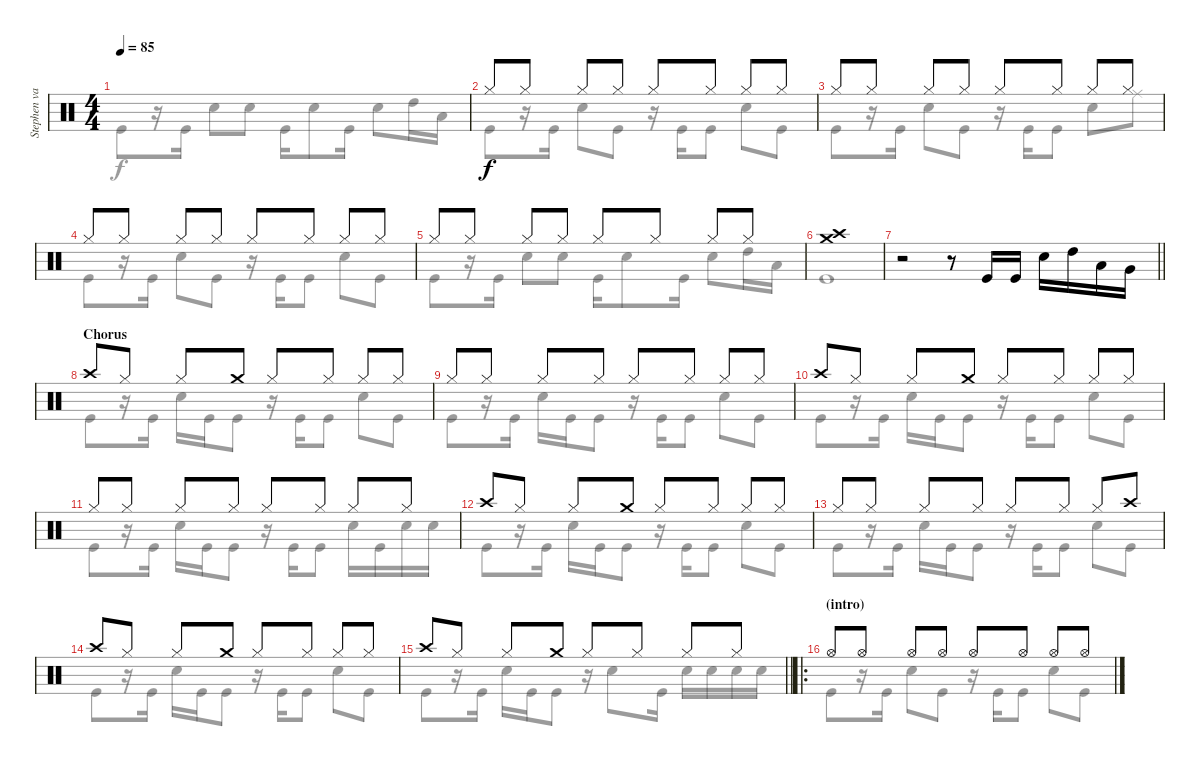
\track ("Stephen van Haestregt - Drums" "Stephen va") {instrument percussion}
\staff {score}
\articulation defaults
\voice
\ts (4 4)
\tempo 85
\clef neutral
\ks c
|
"Hi-Hat (closed)".8 "Hi-Hat (closed)".8 "Hi-Hat (closed)".8 "Hi-Hat (closed)".8 "Hi-Hat (closed)".8 "Hi-Hat (closed)".8 "Hi-Hat (closed)".8 "Hi-Hat (closed)".8 |
"Hi-Hat (closed)".8 "Hi-Hat (closed)".8 "Hi-Hat (closed)".8 "Hi-Hat (closed)".8 "Hi-Hat (closed)".8 "Hi-Hat (closed)".8 "Hi-Hat (closed)".8 "Hi-Hat (closed)".8 |
"Hi-Hat (closed)".8 "Hi-Hat (closed)".8 "Hi-Hat (closed)".8 "Hi-Hat (closed)".8 "Hi-Hat (closed)".8 "Hi-Hat (closed)".8 "Hi-Hat (closed)".8 "Hi-Hat (closed)".8 |
"Hi-Hat (closed)".8 "Hi-Hat (closed)".8 "Hi-Hat (closed)".8 "Hi-Hat (closed)".8 "Hi-Hat (closed)".8 "Hi-Hat (closed)".8 "Hi-Hat (closed)".8 "Hi-Hat (closed)".8 |
("Crash medium (hit)" "Crash high (hit)").1 |
\barLineRight lightlight
r.2 r.8 "Kick (hit)".16 "Kick (hit)".16 "Snare (hit) 2".16 "High Tom (hit)".16 "Low Tom (hit)".16 "Very Low Tom (hit)".16 |
\section ("" "Chorus")
"Crash high (hit)".8 "Hi-Hat (closed)".8 "Hi-Hat (closed)".8 "Crash medium (hit)".8 "Hi-Hat (closed)".8 "Hi-Hat (closed)".8 "Hi-Hat (closed)".8 "Hi-Hat (closed)".8 |
"Hi-Hat (closed)".8 "Hi-Hat (closed)".8 "Hi-Hat (closed)".8 "Hi-Hat (closed)".8 "Hi-Hat (closed)".8 "Hi-Hat (closed)".8 "Hi-Hat (closed)".8 "Hi-Hat (closed)".8 |
"Crash high (hit)".8 "Hi-Hat (closed)".8 "Hi-Hat (closed)".8 "Crash medium (hit)".8 "Hi-Hat (closed)".8 "Hi-Hat (closed)".8 "Hi-Hat (closed)".8 "Hi-Hat (closed)".8 |
"Hi-Hat (closed)".8 "Hi-Hat (closed)".8 "Hi-Hat (closed)".8 "Hi-Hat (closed)".8 "Hi-Hat (closed)".8 "Hi-Hat (closed)".8 "Hi-Hat (closed)".8 "Hi-Hat (closed)".8 |
"Crash high (hit)".8 "Hi-Hat (closed)".8 "Hi-Hat (closed)".8 "Crash medium (hit)".8 "Hi-Hat (closed)".8 "Hi-Hat (closed)".8 "Hi-Hat (closed)".8 "Hi-Hat (closed)".8 |
"Hi-Hat (closed)".8 "Hi-Hat (closed)".8 "Hi-Hat (closed)".8 "Hi-Hat (closed)".8 "Hi-Hat (closed)".8 "Hi-Hat (closed)".8 "Hi-Hat (closed)".8 "Crash high (hit)".8 |
"Crash high (hit)".8 "Hi-Hat (closed)".8 "Hi-Hat (closed)".8 "Crash medium (hit)".8 "Hi-Hat (closed)".8 "Hi-Hat (closed)".8 "Hi-Hat (closed)".8 "Hi-Hat (closed)".8 |
\barLineRight lightlight "Crash high (hit)".8 "Hi-Hat (closed)".8 "Hi-Hat (closed)".8 "Crash medium (hit)".8 "Hi-Hat (closed)".8 "Hi-Hat (closed)".8 "Hi-Hat (closed)".8 "Hi-Hat (closed)".8
|
\ro
\section ("" "(intro)")
"Hi-Hat (open)".8 "Hi-Hat (open)".8 "Hi-Hat (open)".8 "Hi-Hat (open)".8 "Hi-Hat (open)".8 "Hi-Hat (open)".8 "Hi-Hat (open)".8 "Hi-Hat (open)".8
\voice
\clef neutral
\ottava regular
\simile none
\ks c "Kick (hit)".8{dy f}
r.16 "Kick (hit)".16 "Snare (hit) 2".8 "Snare (hit) 2".8 "Kick (hit)".16 "Snare (hit) 2".8 "Kick (hit)".16 "Snare (hit) 2".8 "High Tom (hit)".16 "Low Tom (hit)".16 |
"Kick (hit)".8 r.16 "Kick (hit)".16 "Snare (hit) 2".8 "Kick (hit)".8 r.16 "Kick (hit)".16 "Kick (hit)".8 "Snare (hit) 2".8 "Kick (hit)".8 |
"Kick (hit)".8 r.16 "Kick (hit)".16 "Snare (hit) 2".8 "Kick (hit)".8 r.16 "Kick (hit)".16 "Kick (hit)".8 "Snare (hit) 2".8 "Ride (middle)".8 |
"Kick (hit)".8 r.16 "Kick (hit)".16 "Snare (hit) 2".8 "Kick (hit)".8 r.16 "Kick (hit)".16 "Kick (hit)".8 "Snare (hit) 2".8 "Kick (hit)".8 |
"Kick (hit)".8 r.16 "Kick (hit)".16 "Snare (hit) 2".8 "Snare (hit) 2".8 "Kick (hit)".16 "Snare (hit) 2".8 "Kick (hit)".16 "Snare (hit) 2".8 "High Tom (hit)".16 "Low Tom (hit)".16 |
"Kick (hit)".1 |
\barLineRight lightlight
|
"Kick (hit)".8 r.16 "Kick (hit)".16 "Snare (hit) 2".16 "Kick (hit)".16 "Kick (hit)".8 r.16 "Kick (hit)".16 "Kick (hit)".8 "Snare (hit) 2".8 "Kick (hit)".8 |
"Kick (hit)".8 r.16 "Kick (hit)".16 "Snare (hit) 2".16 "Kick (hit)".16 "Kick (hit)".8 r.16 "Kick (hit)".16 "Kick (hit)".8 "Snare (hit) 2".8 "Kick (hit)".8 |
"Kick (hit)".8 r.16 "Kick (hit)".16 "Snare (hit) 2".16 "Kick (hit)".16 "Kick (hit)".8 r.16 "Kick (hit)".16 "Kick (hit)".8 "Snare (hit) 2".8 "Kick (hit)".8 |
"Kick (hit)".8 r.16 "Kick (hit)".16 "Snare (hit) 2".16 "Kick (hit)".16 "Kick (hit)".8 r.16 "Kick (hit)".16 "Kick (hit)".8 "Snare (hit) 2".16 "Kick (hit)".16 "Snare (hit) 2".16 "Snare (hit) 2".16 |
"Kick (hit)".8 r.16 "Kick (hit)".16 "Snare (hit) 2".16 "Kick (hit)".16 "Kick (hit)".8 r.16 "Kick (hit)".16 "Kick (hit)".8 "Snare (hit) 2".8 "Kick (hit)".8 |
"Kick (hit)".8 r.16 "Kick (hit)".16 "Snare (hit) 2".16 "Kick (hit)".16 "Kick (hit)".8 r.16 "Kick (hit)".16 "Kick (hit)".8 "Snare (hit) 2".8 "Kick (hit)".8 |
"Kick (hit)".8 r.16 "Kick (hit)".16 "Snare (hit) 2".16 "Kick (hit)".16 "Kick (hit)".8 r.16 "Kick (hit)".16 "Kick (hit)".8 "Snare (hit) 2".8 "Kick (hit)".8 |
\barLineRight lightlight "Kick (hit)".8
r.16 "Kick (hit)".16 "Snare (hit) 2".16 "Kick (hit)".16 "Kick (hit)".8 r.16 "Snare (hit) 2".8 "Kick (hit)".16 "Snare (hit) 2".16 "Snare (hit) 2".16 "Snare (hit) 2".16 "Snare (hit) 2".16 |
"Kick (hit)".8 r.16 "Kick (hit)".16 "Snare (hit) 2".8 "Kick (hit)".8 r.16 "Kick (hit)".16 "Kick (hit)".8 "Snare (hit) 2".8 "Kick (hit)".8
